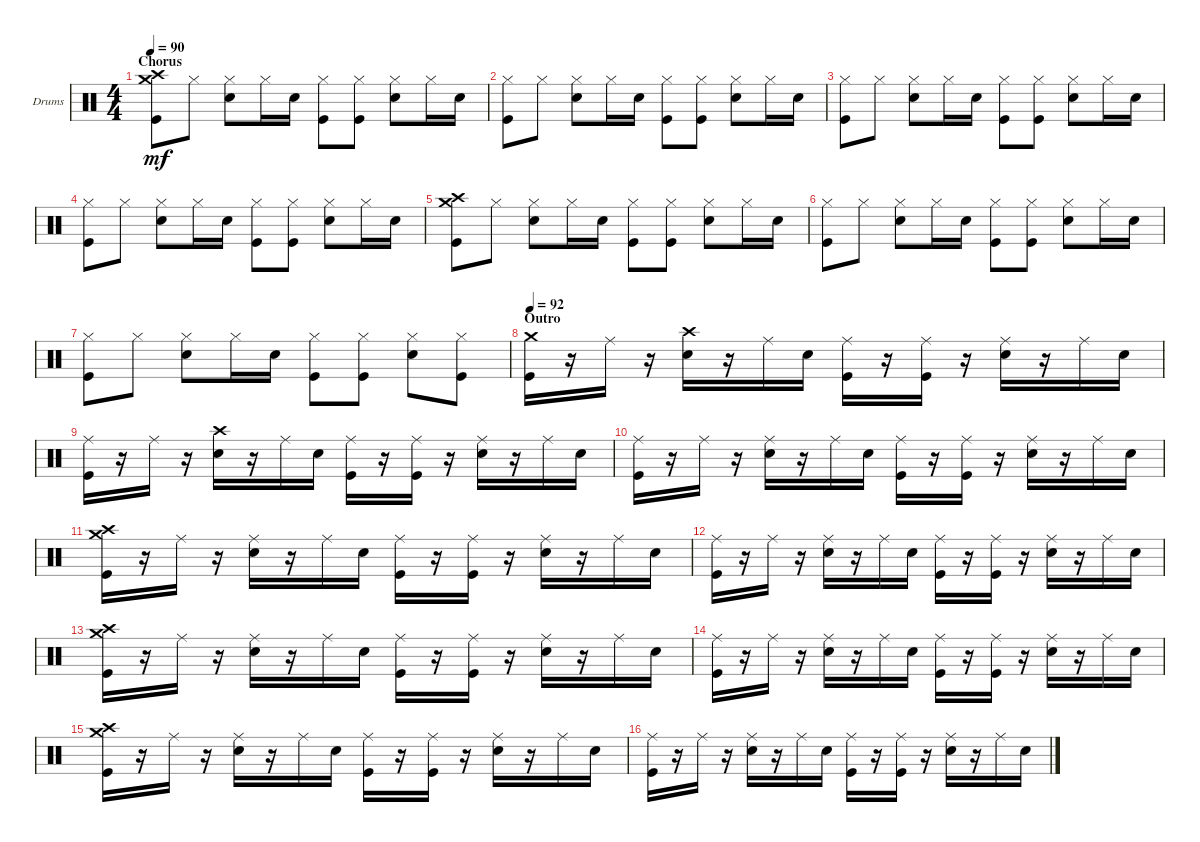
\defaultSystemsLayout 4
\bracketExtendMode groupsimilarinstruments
\firstSystemTrackNameOrientation horizontal
\otherSystemsTrackNameOrientation horizontal
\track ("Drums" "Drums") {instrument percussion}
\staff {score}
\articulation defaults
\ts (4 4)
\section ("" "Chorus")
\tempo 90
\clef neutral
\ks c
("Crash medium (hit)" "Crash high (hit)" "Kick (hit)").8{dy mf} "Hi-Hat (closed)".8 ("Hi-Hat (closed)" "Snare (hit) 2").8 "Hi-Hat (closed)".16 "Snare (hit) 2".16 ("Hi-Hat (closed)" "Kick (hit)").8 ("Hi-Hat (closed)" "Kick (hit)").8 ("Hi-Hat (closed)" "Snare (hit) 2").8 "Hi-Hat (closed)".16 "Snare (hit) 2".16 |
("Hi-Hat (closed)" "Kick (hit)").8 "Hi-Hat (closed)".8 ("Hi-Hat (closed)" "Snare (hit) 2").8 "Hi-Hat (closed)".16 "Snare (hit) 2".16 ("Hi-Hat (closed)" "Kick (hit)").8 ("Hi-Hat (closed)" "Kick (hit)").8 ("Hi-Hat (closed)" "Snare (hit) 2").8 "Hi-Hat (closed)".16 "Snare (hit) 2".16 |
("Hi-Hat (closed)" "Kick (hit)").8 "Hi-Hat (closed)".8 ("Hi-Hat (closed)" "Snare (hit) 2").8 "Hi-Hat (closed)".16 "Snare (hit) 2".16 ("Hi-Hat (closed)" "Kick (hit)").8 ("Hi-Hat (closed)" "Kick (hit)").8 ("Hi-Hat (closed)" "Snare (hit) 2").8 "Hi-Hat (closed)".16 "Snare (hit) 2".16 |
("Hi-Hat (closed)" "Kick (hit)").8 "Hi-Hat (closed)".8 ("Hi-Hat (closed)" "Snare (hit) 2").8 "Hi-Hat (closed)".16 "Snare (hit) 2".16 ("Hi-Hat (closed)" "Kick (hit)").8 ("Hi-Hat (closed)" "Kick (hit)").8 ("Hi-Hat (closed)" "Snare (hit) 2").8 "Hi-Hat (closed)".16 "Snare (hit) 2".16 |
("Crash medium (hit)" "Crash high (hit)" "Kick (hit)").8 "Hi-Hat (closed)".8 ("Hi-Hat (closed)" "Snare (hit) 2").8 "Hi-Hat (closed)".16 "Snare (hit) 2".16 ("Hi-Hat (closed)" "Kick (hit)").8 ("Hi-Hat (closed)" "Kick (hit)").8 ("Hi-Hat (closed)" "Snare (hit) 2").8 "Hi-Hat (closed)".16 "Snare (hit) 2".16 |
("Hi-Hat (closed)" "Kick (hit)").8 "Hi-Hat (closed)".8 ("Hi-Hat (closed)" "Snare (hit) 2").8 "Hi-Hat (closed)".16 "Snare (hit) 2".16 ("Hi-Hat (closed)" "Kick (hit)").8 ("Hi-Hat (closed)" "Kick (hit)").8 ("Hi-Hat (closed)" "Snare (hit) 2").8 "Hi-Hat (closed)".16 "Snare (hit) 2".16 |
("Hi-Hat (closed)" "Kick (hit)").8 "Hi-Hat (closed)".8 ("Hi-Hat (closed)" "Snare (hit) 2").8 "Hi-Hat (closed)".16 "Snare (hit) 2".16 ("Hi-Hat (closed)" "Kick (hit)").8 ("Hi-Hat (closed)" "Kick (hit)").8 ("Hi-Hat (closed)" "Snare (hit) 2").8 ("Hi-Hat (closed)" "Kick (hit)").8 |
\section ("" "Outro")
\tempo 92
("Crash medium (hit)" "Kick (hit)").16 r.16 "Ride (middle)".16 r.16 ("Crash high (hit)" "Snare (hit) 2").16 r.16 "Ride (middle)".16 "Snare (hit) 2".16 ("Ride (middle)" "Kick (hit)").16 r.16 ("Ride (middle)" "Kick (hit)").16 r.16 ("Ride (middle)" "Snare (hit) 2").16 r.16 "Ride (middle)".16 "Snare (hit) 2".16 |
("Ride (middle)" "Kick (hit)").16 r.16 "Ride (middle)".16 r.16 ("Crash high (hit)" "Snare (hit) 2").16 r.16 "Ride (middle)".16 "Snare (hit) 2".16 ("Ride (middle)" "Kick (hit)").16 r.16 ("Ride (middle)" "Kick (hit)").16 r.16 ("Ride (middle)" "Snare (hit) 2").16 r.16 "Ride (middle)".16 "Snare (hit) 2".16 |
("Ride (middle)" "Kick (hit)").16 r.16 "Ride (middle)".16 r.16 ("Ride (middle)" "Snare (hit) 2").16 r.16 "Ride (middle)".16 "Snare (hit) 2".16 ("Ride (middle)" "Kick (hit)").16 r.16 ("Ride (middle)" "Kick (hit)").16 r.16 ("Ride (middle)" "Snare (hit) 2").16 r.16 "Ride (middle)".16 "Snare (hit) 2".16 |
("Crash medium (hit)" "Crash high (hit)" "Kick (hit)").16 r.16 "Ride (middle)".16 r.16 ("Ride (middle)" "Snare (hit) 2").16 r.16 "Ride (middle)".16 "Snare (hit) 2".16 ("Ride (middle)" "Kick (hit)").16 r.16 ("Ride (middle)" "Kick (hit)").16 r.16 ("Ride (middle)" "Snare (hit) 2").16 r.16 "Ride (middle)".16 "Snare (hit) 2".16 |
("Ride (middle)" "Kick (hit)").16 r.16 "Ride (middle)".16 r.16 ("Ride (middle)" "Snare (hit) 2").16 r.16 "Ride (middle)".16 "Snare (hit) 2".16 ("Ride (middle)" "Kick (hit)").16 r.16 ("Ride (middle)" "Kick (hit)").16 r.16 ("Ride (middle)" "Snare (hit) 2").16 r.16 "Ride (middle)".16 "Snare (hit) 2".16 |
("Crash medium (hit)" "Crash high (hit)" "Kick (hit)").16 r.16 "Ride (middle)".16 r.16 ("Ride (middle)" "Snare (hit) 2").16 r.16 "Ride (middle)".16 "Snare (hit) 2".16 ("Ride (middle)" "Kick (hit)").16 r.16 ("Ride (middle)" "Kick (hit)").16 r.16 ("Ride (middle)" "Snare (hit) 2").16 r.16 "Ride (middle)".16 "Snare (hit) 2".16 |
("Ride (middle)" "Kick (hit)").16 r.16 "Ride (middle)".16 r.16 ("Ride (middle)" "Snare (hit) 2").16 r.16 "Ride (middle)".16 "Snare (hit) 2".16 ("Ride (middle)" "Kick (hit)").16 r.16 ("Ride (middle)" "Kick (hit)").16 r.16 ("Ride (middle)" "Snare (hit) 2").16 r.16 "Ride (middle)".16 "Snare (hit) 2".16 |
("Crash medium (hit)" "Crash high (hit)" "Kick (hit)").16 r.16 "Ride (middle)".16 r.16 ("Ride (middle)" "Snare (hit) 2").16 r.16 "Ride (middle)".16 "Snare (hit) 2".16 ("Ride (middle)" "Kick (hit)").16 r.16 ("Ride (middle)" "Kick (hit)").16 r.16 ("Ride (middle)" "Snare (hit) 2").16 r.16 "Ride (middle)".16 "Snare (hit) 2".16 |
("Ride (middle)" "Kick (hit)").16 r.16 "Ride (middle)".16 r.16 ("Ride (middle)" "Snare (hit) 2").16 r.16 "Ride (middle)".16 "Snare (hit) 2".16 ("Ride (middle)" "Kick (hit)").16 r.16 ("Ride (middle)" "Kick (hit)").16 r.16 ("Ride (middle)" "Snare (hit) 2").16 r.16 "Ride (middle)".16 "Snare (hit) 2".16
